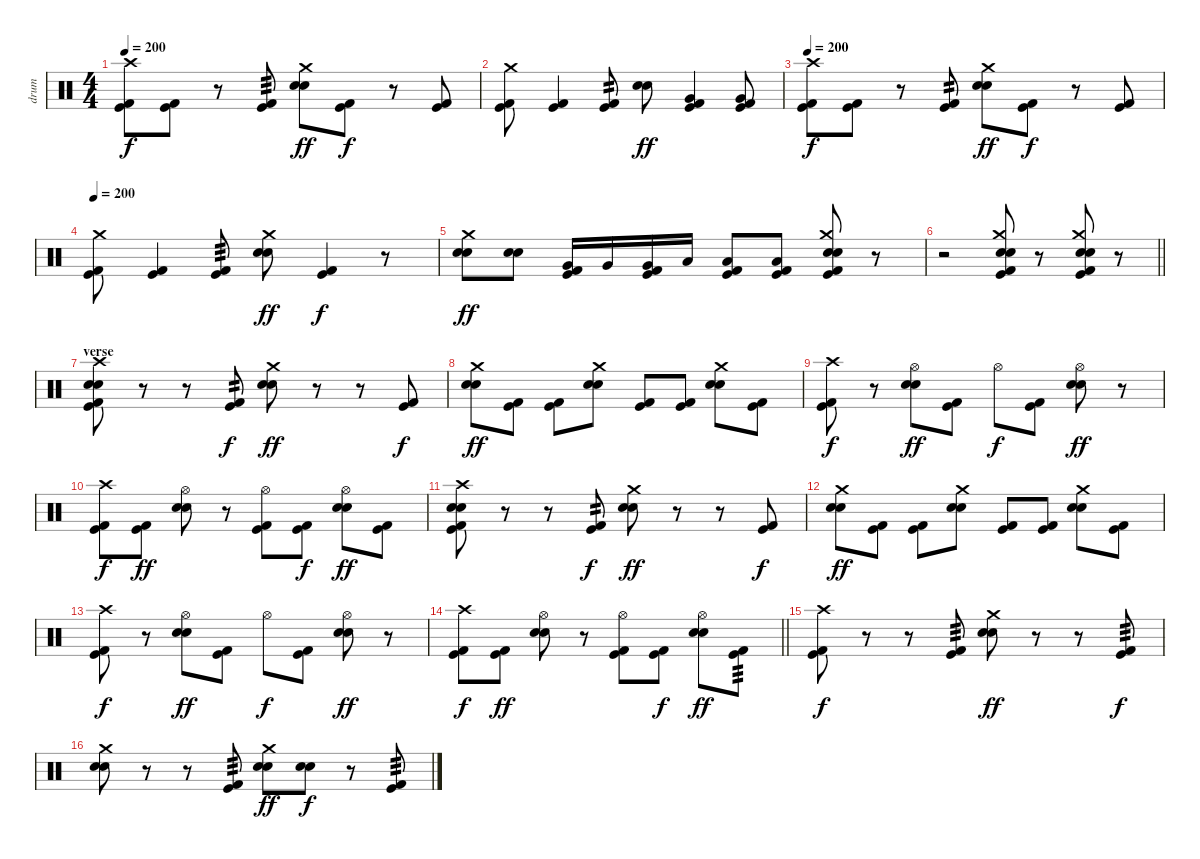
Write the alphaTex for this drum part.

\track ("drum" "drum") {instrument percussion}
\staff {score}
\articulation defaults
\ts (4 4)
\tempo 200
\clef neutral
\ks c
("Crash high (hit)" "Kick (hit)" "Kick (hit) 2").8{dy f} ("Kick (hit)" "Kick (hit) 2").8 r.8 ("Kick (hit)" "Kick (hit) 2").8{tp 3} ("Crash medium (hit)" "Electric Snare (hit)" "Electric Snare (hit)").8{dy ff} ("Kick (hit)" "Kick (hit) 2").8{dy f} r.8 ("Kick (hit)" "Kick (hit) 2").8 |
("Crash medium (hit)" "Kick (hit)" "Kick (hit) 2").8 ("Kick (hit)" "Kick (hit) 2").4 ("Kick (hit)" "Kick (hit) 2").8{tp 2} ("Electric Snare (hit)" "Electric Snare (hit)").8{dy ff} ("Very Low Tom (hit)" "Kick (hit)" "Kick (hit) 2").4 ("Very Low Tom (hit)" "Kick (hit)" "Kick (hit) 2").8 |
\tempo 200
("Crash high (hit)" "Kick (hit)" "Kick (hit) 2").8{dy f} ("Kick (hit)" "Kick (hit) 2").8 r.8 ("Kick (hit)" "Kick (hit) 2").8{tp 2} ("Crash medium (hit)" "Electric Snare (hit)" "Electric Snare (hit)").8{dy ff} ("Kick (hit)" "Kick (hit) 2").8{dy f} r.8 ("Kick (hit)" "Kick (hit) 2").8 |
\tempo 200
("Crash medium (hit)" "Kick (hit)" "Kick (hit) 2").8 ("Kick (hit)" "Kick (hit) 2").4 ("Kick (hit)" "Kick (hit) 2").8{tp 3} ("Crash medium (hit)" "Electric Snare (hit)" "Electric Snare (hit)").8{dy ff} ("Kick (hit)" "Kick (hit) 2").4{dy f} r.8 |
("Crash medium (hit)" "Electric Snare (hit)" "Electric Snare (hit)").8{dy ff} ("Electric Snare (hit)" "Electric Snare (hit)").8 ("Very Low Tom (hit)" "Kick (hit)" "Kick (hit) 2").16 "Very Low Tom (hit)".16 ("Very Low Tom (hit)" "Kick (hit)" "Kick (hit) 2").16 "Low Tom (hit)".16 ("Low Tom (hit)" "Kick (hit)" "Kick (hit) 2").8 ("Low Tom (hit)" "Kick (hit)" "Kick (hit) 2").8 ("Crash medium (hit)" "Electric Snare (hit)" "Electric Snare (hit)" "Kick (hit)" "Kick (hit) 2").8 r.8 |
\barLineRight lightlight
r.2 ("Crash medium (hit)" "Electric Snare (hit)" "Electric Snare (hit)" "Kick (hit)" "Kick (hit) 2").8 r.8 ("Crash medium (hit)" "Electric Snare (hit)" "Electric Snare (hit)" "Kick (hit)" "Kick (hit) 2").8 r.8 |
\section ("" "verse")
("Crash high (hit)" "Electric Snare (hit)" "Electric Snare (hit)" "Kick (hit)" "Kick (hit) 2").8 r.8 r.8 ("Kick (hit)" "Kick (hit) 2").8{tp 2 dy f} ("Crash medium (hit)" "Electric Snare (hit)" "Electric Snare (hit)").8{dy ff} r.8 r.8 ("Kick (hit)" "Kick (hit) 2").8{dy f} |
("Crash medium (hit)" "Electric Snare (hit)" "Electric Snare (hit)").8{dy ff} ("Kick (hit)" "Kick (hit) 2").8 ("Kick (hit)" "Kick (hit) 2").8 ("Crash medium (hit)" "Electric Snare (hit)" "Electric Snare (hit)").8 ("Kick (hit)" "Kick (hit) 2").8 ("Kick (hit)" "Kick (hit) 2").8 ("Crash medium (hit)" "Electric Snare (hit)" "Electric Snare (hit)").8 ("Kick (hit)" "Kick (hit) 2").8 |
("Crash high (hit)" "Kick (hit)" "Kick (hit) 2").8{dy f} r.8 ("Hi-Hat (open)" "Electric Snare (hit)" "Electric Snare (hit)").8{dy ff} ("Kick (hit)" "Kick (hit) 2").8 "Hi-Hat (open)".8{dy f} ("Kick (hit)" "Kick (hit) 2").8 ("Hi-Hat (open)" "Electric Snare (hit)" "Electric Snare (hit)").8{dy ff} r.8 |
("Crash high (hit)" "Kick (hit)" "Kick (hit) 2").8{dy f} ("Kick (hit)" "Kick (hit) 2").8{dy ff} ("Hi-Hat (open)" "Electric Snare (hit)" "Electric Snare (hit)").8 r.8 ("Hi-Hat (open)" "Kick (hit)" "Kick (hit) 2").8 ("Kick (hit)" "Kick (hit) 2").8{dy f} ("Hi-Hat (open)" "Electric Snare (hit)" "Electric Snare (hit)").8{dy ff} ("Kick (hit)" "Kick (hit) 2").8 |
("Crash high (hit)" "Electric Snare (hit)" "Electric Snare (hit)" "Kick (hit)" "Kick (hit) 2").8 r.8 r.8 ("Kick (hit)" "Kick (hit) 2").8{tp 2 dy f} ("Crash medium (hit)" "Electric Snare (hit)" "Electric Snare (hit)").8{dy ff} r.8 r.8 ("Kick (hit)" "Kick (hit) 2").8{dy f} |
("Crash medium (hit)" "Electric Snare (hit)" "Electric Snare (hit)").8{dy ff} ("Kick (hit)" "Kick (hit) 2").8 ("Kick (hit)" "Kick (hit) 2").8 ("Crash medium (hit)" "Electric Snare (hit)" "Electric Snare (hit)").8 ("Kick (hit)" "Kick (hit) 2").8 ("Kick (hit)" "Kick (hit) 2").8 ("Crash medium (hit)" "Electric Snare (hit)" "Electric Snare (hit)").8 ("Kick (hit)" "Kick (hit) 2").8 |
("Crash high (hit)" "Kick (hit)" "Kick (hit) 2").8{dy f} r.8 ("Hi-Hat (open)" "Electric Snare (hit)" "Electric Snare (hit)").8{dy ff} ("Kick (hit)" "Kick (hit) 2").8 "Hi-Hat (open)".8{dy f} ("Kick (hit)" "Kick (hit) 2").8 ("Hi-Hat (open)" "Electric Snare (hit)" "Electric Snare (hit)").8{dy ff} r.8 |
\barLineRight lightlight
("Crash high (hit)" "Kick (hit)" "Kick (hit) 2").8{dy f} ("Kick (hit)" "Kick (hit) 2").8{dy ff} ("Hi-Hat (open)" "Electric Snare (hit)" "Electric Snare (hit)").8 r.8 ("Hi-Hat (open)" "Kick (hit)" "Kick (hit) 2").8 ("Kick (hit)" "Kick (hit) 2").8{dy f} ("Hi-Hat (open)" "Electric Snare (hit)" "Electric Snare (hit)").8{dy ff} ("Kick (hit)" "Kick (hit) 2").8{tp 3} |
\section ("" "")
("Crash high (hit)" "Kick (hit)" "Kick (hit) 2").8{dy f} r.8 r.8 ("Kick (hit)" "Kick (hit) 2").8{tp 3} ("Crash medium (hit)" "Electric Snare (hit)" "Electric Snare (hit)").8{dy ff} r.8 r.8 ("Kick (hit)" "Kick (hit) 2").8{tp 3 dy f} |
("Crash medium (hit)" "Electric Snare (hit)" "Electric Snare (hit)").8 r.8 r.8 ("Kick (hit)" "Kick (hit) 2").8{tp 3} ("Crash medium (hit)" "Electric Snare (hit)" "Electric Snare (hit)").8{dy ff} ("Electric Snare (hit)" "Electric Snare (hit)").8{dy f} r.8 ("Kick (hit)" "Kick (hit) 2").8{tp 3}
